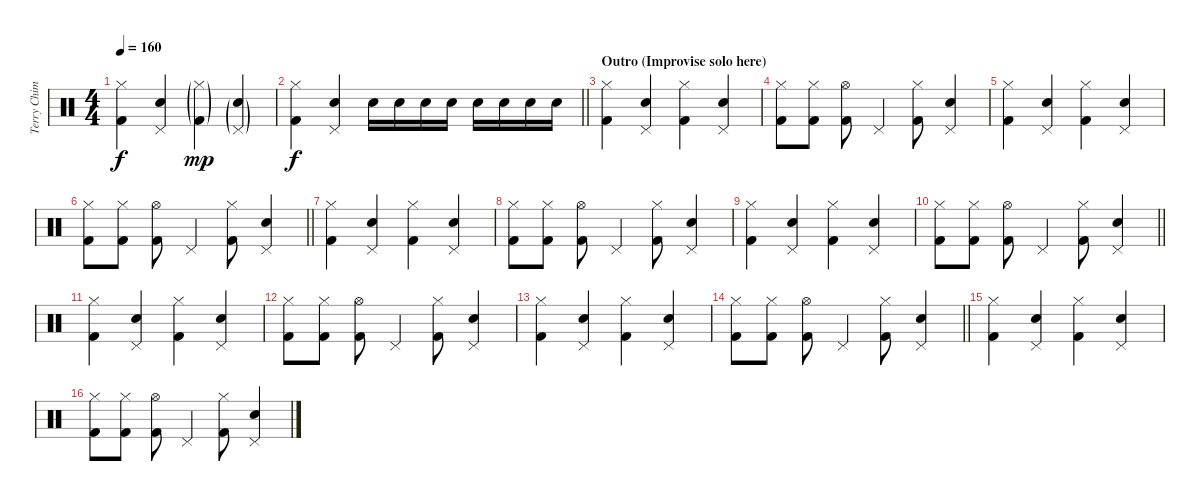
\track ("Terry Chimes - Drums" "Terry Chim") {instrument percussion}
\staff {score}
\articulation defaults
\ts (4 4)
\tempo 160
\clef neutral
\ks c
("Hi-Hat (closed)" "Kick (hit) 2").4{dy f} ("Pedal Hi-Hat (hit)" "Snare (hit) 2").4 ("Hi-Hat (closed)"{g} "Kick (hit) 2"{g}).4{dy mp} ("Pedal Hi-Hat (hit)"{g} "Snare (hit) 2"{g}).4 |
\barLineRight lightlight
("Hi-Hat (closed)" "Kick (hit) 2").4{dy f} ("Pedal Hi-Hat (hit)" "Snare (hit) 2").4 "Snare (hit) 2".16 "Snare (hit) 2".16 "Snare (hit) 2".16 "Snare (hit) 2".16 "Snare (hit) 2".16 "Snare (hit) 2".16 "Snare (hit) 2".16 "Snare (hit) 2".16 |
\section ("" "Outro (Improvise solo here)")
("Hi-Hat (closed)" "Kick (hit) 2").4 ("Pedal Hi-Hat (hit)" "Snare (hit) 2").4 ("Hi-Hat (closed)" "Kick (hit) 2").4 ("Pedal Hi-Hat (hit)" "Snare (hit) 2").4 |
("Hi-Hat (closed)" "Kick (hit) 2").8 ("Hi-Hat (closed)" "Kick (hit) 2").8 ("Hi-Hat (open)" "Kick (hit) 2").8 "Pedal Hi-Hat (hit)".4 ("Hi-Hat (closed)" "Kick (hit) 2").8 ("Pedal Hi-Hat (hit)" "Snare (hit) 2").4 |
("Hi-Hat (closed)" "Kick (hit) 2").4 ("Pedal Hi-Hat (hit)" "Snare (hit) 2").4 ("Hi-Hat (closed)" "Kick (hit) 2").4 ("Pedal Hi-Hat (hit)" "Snare (hit) 2").4 |
\barLineRight lightlight
("Hi-Hat (closed)" "Kick (hit) 2").8 ("Hi-Hat (closed)" "Kick (hit) 2").8 ("Hi-Hat (open)" "Kick (hit) 2").8 "Pedal Hi-Hat (hit)".4 ("Hi-Hat (closed)" "Kick (hit) 2").8 ("Pedal Hi-Hat (hit)" "Snare (hit) 2").4 |
("Hi-Hat (closed)" "Kick (hit) 2").4 ("Pedal Hi-Hat (hit)" "Snare (hit) 2").4 ("Hi-Hat (closed)" "Kick (hit) 2").4 ("Pedal Hi-Hat (hit)" "Snare (hit) 2").4 |
("Hi-Hat (closed)" "Kick (hit) 2").8 ("Hi-Hat (closed)" "Kick (hit) 2").8 ("Hi-Hat (open)" "Kick (hit) 2").8 "Pedal Hi-Hat (hit)".4 ("Hi-Hat (closed)" "Kick (hit) 2").8 ("Pedal Hi-Hat (hit)" "Snare (hit) 2").4 |
("Hi-Hat (closed)" "Kick (hit) 2").4 ("Pedal Hi-Hat (hit)" "Snare (hit) 2").4 ("Hi-Hat (closed)" "Kick (hit) 2").4 ("Pedal Hi-Hat (hit)" "Snare (hit) 2").4 |
\barLineRight lightlight
("Hi-Hat (closed)" "Kick (hit) 2").8 ("Hi-Hat (closed)" "Kick (hit) 2").8 ("Hi-Hat (open)" "Kick (hit) 2").8 "Pedal Hi-Hat (hit)".4 ("Hi-Hat (closed)" "Kick (hit) 2").8 ("Pedal Hi-Hat (hit)" "Snare (hit) 2").4 |
("Hi-Hat (closed)" "Kick (hit) 2").4 ("Pedal Hi-Hat (hit)" "Snare (hit) 2").4 ("Hi-Hat (closed)" "Kick (hit) 2").4 ("Pedal Hi-Hat (hit)" "Snare (hit) 2").4 |
("Hi-Hat (closed)" "Kick (hit) 2").8 ("Hi-Hat (closed)" "Kick (hit) 2").8 ("Hi-Hat (open)" "Kick (hit) 2").8 "Pedal Hi-Hat (hit)".4 ("Hi-Hat (closed)" "Kick (hit) 2").8 ("Pedal Hi-Hat (hit)" "Snare (hit) 2").4 |
("Hi-Hat (closed)" "Kick (hit) 2").4 ("Pedal Hi-Hat (hit)" "Snare (hit) 2").4 ("Hi-Hat (closed)" "Kick (hit) 2").4 ("Pedal Hi-Hat (hit)" "Snare (hit) 2").4 |
\barLineRight lightlight
("Hi-Hat (closed)" "Kick (hit) 2").8 ("Hi-Hat (closed)" "Kick (hit) 2").8 ("Hi-Hat (open)" "Kick (hit) 2").8 "Pedal Hi-Hat (hit)".4 ("Hi-Hat (closed)" "Kick (hit) 2").8 ("Pedal Hi-Hat (hit)" "Snare (hit) 2").4 |
("Hi-Hat (closed)" "Kick (hit) 2").4 ("Pedal Hi-Hat (hit)" "Snare (hit) 2").4 ("Hi-Hat (closed)" "Kick (hit) 2").4 ("Pedal Hi-Hat (hit)" "Snare (hit) 2").4 |
("Hi-Hat (closed)" "Kick (hit) 2").8 ("Hi-Hat (closed)" "Kick (hit) 2").8 ("Hi-Hat (open)" "Kick (hit) 2").8 "Pedal Hi-Hat (hit)".4 ("Hi-Hat (closed)" "Kick (hit) 2").8 ("Pedal Hi-Hat (hit)" "Snare (hit) 2").4
